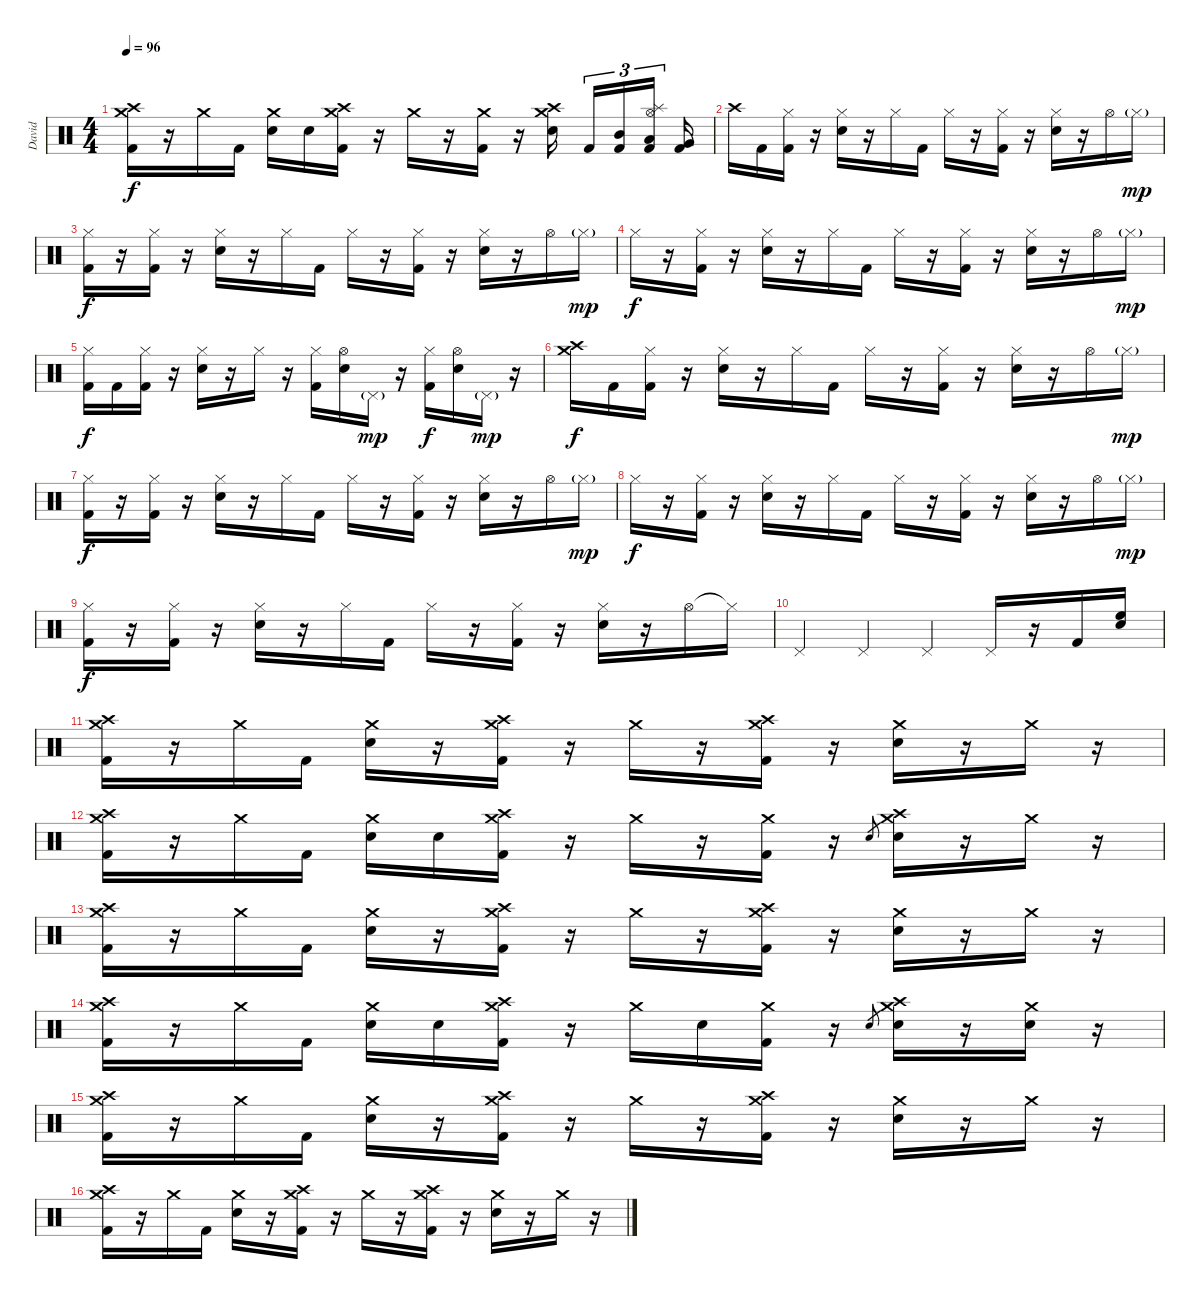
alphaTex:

\track ("David" "David") {instrument percussion}
\staff {score}
\articulation defaults
\ts (4 4)
\tempo 96
\clef neutral
\ks c
("Crash high (hit)" "Crash medium (hit)" "Kick (hit) 2").16{dy f} r.16 "Crash medium (hit)".16 "Kick (hit) 2".16 ("Crash medium (hit)" "Electric Snare (hit)").16 "Electric Snare (hit)".16 ("Crash high (hit)" "Crash medium (hit)" "Kick (hit) 2").16 r.16 "Crash medium (hit)".16 r.16 ("Crash medium (hit)" "Kick (hit) 2").16 r.16 ("Crash high (hit)" "Crash medium (hit)" "Electric Snare (hit)").16 "Kick (hit) 2".16{tu (3 2)} ("Mid Tom (hit)" "Kick (hit) 2").16{tu (3 2)} ("Splash (hit)" "Hi-Hat (open)" "Low Tom (hit)" "Kick (hit) 2").16{tu (3 2)} ("Very Low Tom (hit)" "Kick (hit) 2").16 |
"Crash high (hit)".16 "Kick (hit) 2".16 ("Hi-Hat (closed)" "Kick (hit) 2").16 r.16 ("Hi-Hat (closed)" "Electric Snare (hit)").16 r.16 "Hi-Hat (closed)".16 "Kick (hit) 2".16 "Hi-Hat (closed)".16 r.16 ("Hi-Hat (closed)" "Kick (hit) 2").16 r.16 ("Hi-Hat (closed)" "Electric Snare (hit)").16 r.16 "Hi-Hat (open)".16 "Hi-Hat (closed)"{g}.16{dy mp} |
("Hi-Hat (closed)" "Kick (hit) 2").16{dy f} r.16 ("Hi-Hat (closed)" "Kick (hit) 2").16 r.16 ("Hi-Hat (closed)" "Electric Snare (hit)").16 r.16 "Hi-Hat (closed)".16 "Kick (hit) 2".16 "Hi-Hat (closed)".16 r.16 ("Hi-Hat (closed)" "Kick (hit) 2").16 r.16 ("Hi-Hat (closed)" "Electric Snare (hit)").16 r.16 "Hi-Hat (open)".16 "Hi-Hat (closed)"{g}.16{dy mp} |
"Hi-Hat (closed)".16{dy f} r.16 ("Hi-Hat (closed)" "Kick (hit) 2").16 r.16 ("Hi-Hat (closed)" "Electric Snare (hit)").16 r.16 "Hi-Hat (closed)".16 "Kick (hit) 2".16 "Hi-Hat (closed)".16 r.16 ("Hi-Hat (closed)" "Kick (hit) 2").16 r.16 ("Hi-Hat (closed)" "Electric Snare (hit)").16 r.16 "Hi-Hat (open)".16 "Hi-Hat (closed)"{g}.16{dy mp} |
("Hi-Hat (closed)" "Kick (hit) 2").16{dy f} "Kick (hit) 2".16 ("Hi-Hat (closed)" "Kick (hit) 2").16 r.16 ("Hi-Hat (closed)" "Electric Snare (hit)").16 r.16 "Hi-Hat (closed)".16 r.16 ("Hi-Hat (closed)" "Kick (hit) 2").16 ("Hi-Hat (open)" "Electric Snare (hit)").16 "Pedal Hi-Hat (hit)"{g}.16{dy mp} r.16 ("Hi-Hat (closed)" "Kick (hit) 2").16{dy f} ("Hi-Hat (open)" "Electric Snare (hit)").16 "Pedal Hi-Hat (hit)"{g}.16{dy mp} r.16 |
("Crash high (hit)" "Crash medium (hit)").16{dy f} "Kick (hit) 2".16 ("Hi-Hat (closed)" "Kick (hit) 2").16 r.16 ("Hi-Hat (closed)" "Electric Snare (hit)").16 r.16 "Hi-Hat (closed)".16 "Kick (hit) 2".16 "Hi-Hat (closed)".16 r.16 ("Hi-Hat (closed)" "Kick (hit) 2").16 r.16 ("Hi-Hat (closed)" "Electric Snare (hit)").16 r.16 "Hi-Hat (open)".16 "Hi-Hat (closed)"{g}.16{dy mp} |
("Hi-Hat (closed)" "Kick (hit) 2").16{dy f} r.16 ("Hi-Hat (closed)" "Kick (hit) 2").16 r.16 ("Hi-Hat (closed)" "Electric Snare (hit)").16 r.16 "Hi-Hat (closed)".16 "Kick (hit) 2".16 "Hi-Hat (closed)".16 r.16 ("Hi-Hat (closed)" "Kick (hit) 2").16 r.16 ("Hi-Hat (closed)" "Electric Snare (hit)").16 r.16 "Hi-Hat (open)".16 "Hi-Hat (closed)"{g}.16{dy mp} |
"Hi-Hat (closed)".16{dy f} r.16 ("Hi-Hat (closed)" "Kick (hit) 2").16 r.16 ("Hi-Hat (closed)" "Electric Snare (hit)").16 r.16 "Hi-Hat (closed)".16 "Kick (hit) 2".16 "Hi-Hat (closed)".16 r.16 ("Hi-Hat (closed)" "Kick (hit) 2").16 r.16 ("Hi-Hat (closed)" "Electric Snare (hit)").16 r.16 "Hi-Hat (open)".16 "Hi-Hat (closed)"{g}.16{dy mp} |
("Hi-Hat (closed)" "Kick (hit) 2").16{dy f} r.16 ("Hi-Hat (closed)" "Kick (hit) 2").16 r.16 ("Hi-Hat (closed)" "Electric Snare (hit)").16 r.16 "Hi-Hat (closed)".16 "Kick (hit) 2".16 "Hi-Hat (closed)".16 r.16 ("Hi-Hat (closed)" "Kick (hit) 2").16 r.16 ("Hi-Hat (closed)" "Electric Snare (hit)").16 r.16 "Hi-Hat (open)".16 "Hi-Hat (closed)"{t}.16 |
"Pedal Hi-Hat (hit)".4 "Pedal Hi-Hat (hit)".4 "Pedal Hi-Hat (hit)".4 "Pedal Hi-Hat (hit)".16 r.16 "Kick (hit) 2".16 ("High Floor Tom (hit)" "Electric Snare (hit)").16 |
("Crash high (hit)" "Crash medium (hit)" "Kick (hit) 2").16 r.16 "Crash medium (hit)".16 "Kick (hit) 2".16 ("Crash medium (hit)" "Electric Snare (hit)").16 r.16 ("Crash high (hit)" "Crash medium (hit)" "Kick (hit) 2").16 r.16 "Crash medium (hit)".16 r.16 ("Crash high (hit)" "Crash medium (hit)" "Kick (hit) 2").16 r.16 ("Crash medium (hit)" "Electric Snare (hit)").16 r.16 "Crash medium (hit)".16 r.16 |
("Crash high (hit)" "Crash medium (hit)" "Kick (hit) 2").16 r.16 "Crash medium (hit)".16 "Kick (hit) 2".16 ("Crash medium (hit)" "Electric Snare (hit)").16 "Electric Snare (hit)".16 ("Crash high (hit)" "Crash medium (hit)" "Kick (hit) 2").16 r.16 "Crash medium (hit)".16 r.16 ("Crash medium (hit)" "Kick (hit) 2").16 r.16 "Electric Snare (hit)".8{gr} ("Crash high (hit)" "Crash medium (hit)" "Electric Snare (hit)").16 r.16 "Crash medium (hit)".16 r.16 |
("Crash high (hit)" "Crash medium (hit)" "Kick (hit) 2").16 r.16 "Crash medium (hit)".16 "Kick (hit) 2".16 ("Crash medium (hit)" "Electric Snare (hit)").16 r.16 ("Crash high (hit)" "Crash medium (hit)" "Kick (hit) 2").16 r.16 "Crash medium (hit)".16 r.16 ("Crash high (hit)" "Crash medium (hit)" "Kick (hit) 2").16 r.16 ("Crash medium (hit)" "Electric Snare (hit)").16 r.16 "Crash medium (hit)".16 r.16 |
("Crash high (hit)" "Crash medium (hit)" "Kick (hit) 2").16 r.16 "Crash medium (hit)".16 "Kick (hit) 2".16 ("Crash medium (hit)" "Electric Snare (hit)").16 "Electric Snare (hit)".16 ("Crash high (hit)" "Crash medium (hit)" "Kick (hit) 2").16 r.16 "Crash medium (hit)".16 "Electric Snare (hit)".16 ("Crash medium (hit)" "Kick (hit) 2").16 r.16 "Electric Snare (hit)".8{gr} ("Crash high (hit)" "Crash medium (hit)" "Electric Snare (hit)").16 r.16 ("Crash medium (hit)" "Electric Snare (hit)").16 r.16 |
("Crash high (hit)" "Crash medium (hit)" "Kick (hit) 2").16 r.16 "Crash medium (hit)".16 "Kick (hit) 2".16 ("Crash medium (hit)" "Electric Snare (hit)").16 r.16 ("Crash high (hit)" "Crash medium (hit)" "Kick (hit) 2").16 r.16 "Crash medium (hit)".16 r.16 ("Crash high (hit)" "Crash medium (hit)" "Kick (hit) 2").16 r.16 ("Crash medium (hit)" "Electric Snare (hit)").16 r.16 "Crash medium (hit)".16 r.16 |
("Crash high (hit)" "Crash medium (hit)" "Kick (hit) 2").16 r.16 "Crash medium (hit)".16 "Kick (hit) 2".16 ("Crash medium (hit)" "Electric Snare (hit)").16 r.16 ("Crash high (hit)" "Crash medium (hit)" "Kick (hit) 2").16 r.16 "Crash medium (hit)".16 r.16 ("Crash high (hit)" "Crash medium (hit)" "Kick (hit) 2").16 r.16 ("Crash medium (hit)" "Electric Snare (hit)").16 r.16 "Crash medium (hit)".16 r.16
